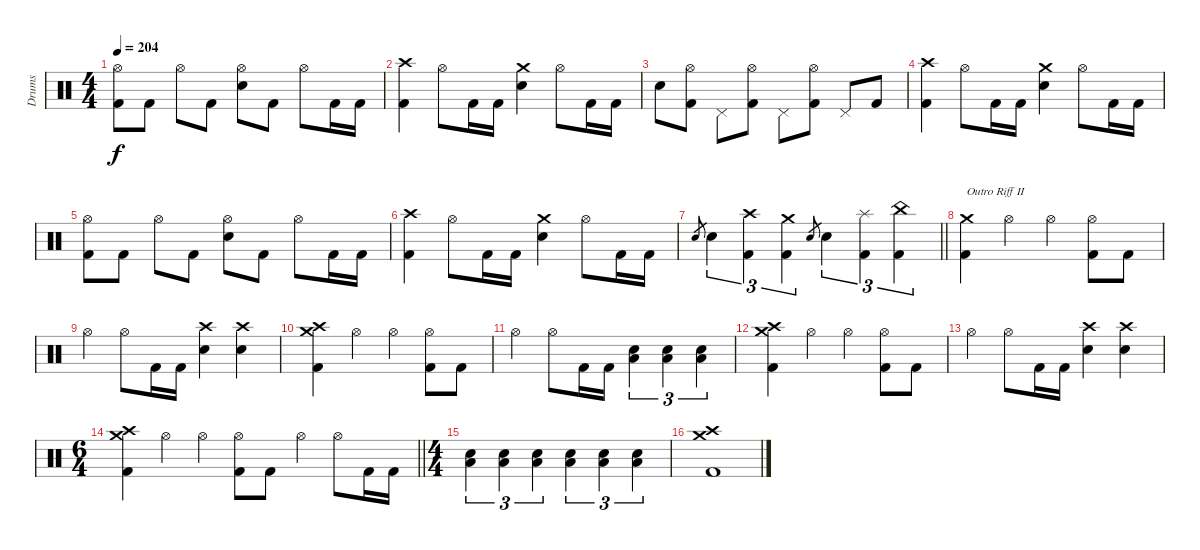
\track ("Drums" "Drums") {instrument percussion}
\staff {score}
\articulation defaults
\ts (4 4)
\tempo 204
\clef neutral
\ks c
("Hi-Hat (open)" "Kick (hit) 2").8{dy f} "Kick (hit) 2".8 "Hi-Hat (open)".8 "Kick (hit) 2".8 ("Hi-Hat (open)" "Electric Snare (hit)").8 "Kick (hit) 2".8 "Hi-Hat (open)".8 "Kick (hit) 2".16 "Kick (hit) 2".16 |
("Crash high (hit)" "Kick (hit) 2").4 "Hi-Hat (open)".8 "Kick (hit) 2".16 "Kick (hit) 2".16 ("Crash medium (hit)" "Electric Snare (hit)").4 "Hi-Hat (open)".8 "Kick (hit) 2".16 "Kick (hit) 2".16 |
"Electric Snare (hit)".8 ("Hi-Hat (open)" "Kick (hit) 2").8 "Pedal Hi-Hat (hit)".8 ("Hi-Hat (open)" "Kick (hit) 2").8 "Pedal Hi-Hat (hit)".8 ("Hi-Hat (open)" "Kick (hit) 2").8 "Pedal Hi-Hat (hit)".8 "Kick (hit) 2".8 |
("Crash high (hit)" "Kick (hit) 2").4 "Hi-Hat (open)".8 "Kick (hit) 2".16 "Kick (hit) 2".16 ("Crash medium (hit)" "Electric Snare (hit)").4 "Hi-Hat (open)".8 "Kick (hit) 2".16 "Kick (hit) 2".16 |
("Hi-Hat (open)" "Kick (hit) 2").8 "Kick (hit) 2".8 "Hi-Hat (open)".8 "Kick (hit) 2".8 ("Hi-Hat (open)" "Electric Snare (hit)").8 "Kick (hit) 2".8 "Hi-Hat (open)".8 "Kick (hit) 2".16 "Kick (hit) 2".16 |
("Crash high (hit)" "Kick (hit) 2").4 "Hi-Hat (open)".8 "Kick (hit) 2".16 "Kick (hit) 2".16 ("Crash medium (hit)" "Electric Snare (hit)").4 "Hi-Hat (open)".8 "Kick (hit) 2".16 "Kick (hit) 2".16 |
\barLineRight lightlight "Electric Snare (hit)".8{gr} "Electric Snare (hit)".4{tu (3 2)}
("Crash high (hit)" "Kick (hit) 2").4{tu (3 2)} ("Crash medium (hit)" "Kick (hit) 2").4{tu (3 2)} "Electric Snare (hit)".8{gr} "Electric Snare (hit)".4{tu (3 2)} ("Splash (hit)" "Kick (hit) 2").4{tu (3 2)} ("China (hit)" "Kick (hit) 2").4{tu (3 2)} |
("Crash medium (hit)" "Kick (hit) 2").4{txt "Outro Riff II"} "Hi-Hat (open)".4 "Hi-Hat (open)".4 ("Hi-Hat (open)" "Kick (hit) 2").8 "Kick (hit) 2".8 |
"Hi-Hat (open)".4 "Hi-Hat (open)".8 "Kick (hit) 2".16 "Kick (hit) 2".16 ("Crash high (hit)" "Electric Snare (hit)").4 ("Crash high (hit)" "Electric Snare (hit)").4 |
("Crash medium (hit)" "Crash high (hit)" "Kick (hit) 2").4 "Hi-Hat (open)".4 "Hi-Hat (open)".4 ("Hi-Hat (open)" "Kick (hit) 2").8 "Kick (hit) 2".8 |
"Hi-Hat (open)".4 "Hi-Hat (open)".8 "Kick (hit) 2".16 "Kick (hit) 2".16 ("Low Floor Tom (hit)" "Electric Snare (hit)").4{tu (3 2)} ("Low Floor Tom (hit)" "Electric Snare (hit)").4{tu (3 2)} ("Low Floor Tom (hit)" "Electric Snare (hit)").4{tu (3 2)} |
("Crash medium (hit)" "Crash high (hit)" "Kick (hit) 2").4 "Hi-Hat (open)".4 "Hi-Hat (open)".4 ("Hi-Hat (open)" "Kick (hit) 2").8 "Kick (hit) 2".8 |
"Hi-Hat (open)".4 "Hi-Hat (open)".8 "Kick (hit) 2".16 "Kick (hit) 2".16 ("Crash high (hit)" "Electric Snare (hit)").4 ("Crash high (hit)" "Electric Snare (hit)").4 |
\ts (6 4)
\barLineRight lightlight
("Crash medium (hit)" "Crash high (hit)" "Kick (hit) 2").4 "Hi-Hat (open)".4 "Hi-Hat (open)".4 ("Hi-Hat (open)" "Kick (hit) 2").8 "Kick (hit) 2".8 "Hi-Hat (open)".4 "Hi-Hat (open)".8 "Kick (hit) 2".16 "Kick (hit) 2".16 |
\ts (4 4)
("Low Floor Tom (hit)" "Electric Snare (hit)").4{tu (3 2)} ("Low Floor Tom (hit)" "Electric Snare (hit)").4{tu (3 2)} ("Low Floor Tom (hit)" "Electric Snare (hit)").4{tu (3 2)} ("Low Floor Tom (hit)" "Electric Snare (hit)").4{tu (3 2)} ("Low Floor Tom (hit)" "Electric Snare (hit)").4{tu (3 2)} ("Low Floor Tom (hit)" "Electric Snare (hit)").4{tu (3 2)} |
("Crash medium (hit)" "Crash high (hit)" "Kick (hit) 2").1
